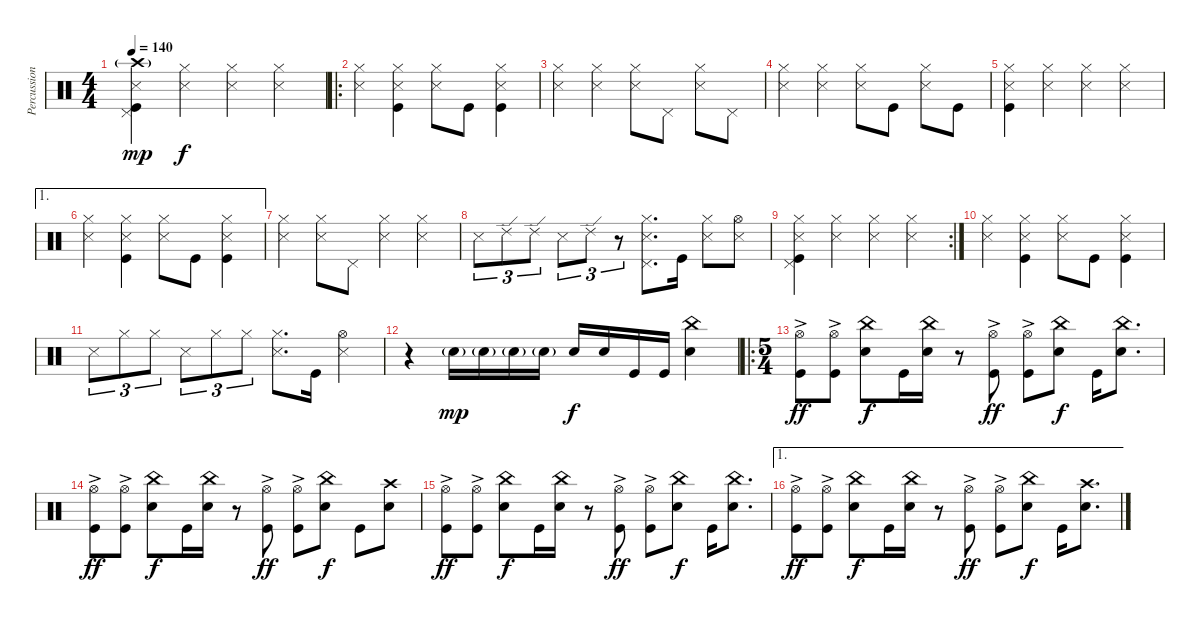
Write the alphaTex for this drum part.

\track ("Percussion" "Percussion") {instrument percussion}
\staff {score}
\articulation defaults
\ts (4 4)
\tempo 140
\clef neutral
\ks c
("Crash high (hit)"{g} "Snare (side stick) 3" "Kick (hit)" "Pedal Hi-Hat (hit)").4{dy mp} ("Hi-Hat (closed)" "Snare (side stick) 3").4{dy f} ("Hi-Hat (closed)" "Snare (side stick) 3").4 ("Hi-Hat (closed)" "Snare (side stick) 3").4 |
\ro
("Hi-Hat (closed)" "Snare (side stick) 3").4 ("Hi-Hat (closed)" "Snare (side stick) 3" "Kick (hit)").4 ("Hi-Hat (closed)" "Snare (side stick) 3").8 "Kick (hit)".8 ("Hi-Hat (closed)" "Snare (side stick) 3" "Kick (hit)").4 |
("Hi-Hat (closed)" "Snare (side stick) 3").4 ("Hi-Hat (closed)" "Snare (side stick) 3").4 ("Hi-Hat (closed)" "Snare (side stick) 3").8 "Pedal Hi-Hat (hit)".8 ("Hi-Hat (closed)" "Snare (side stick) 3").8 "Pedal Hi-Hat (hit)".8 |
("Hi-Hat (closed)" "Snare (side stick) 3").4 ("Hi-Hat (closed)" "Snare (side stick) 3").4 ("Hi-Hat (closed)" "Snare (side stick) 3").8 "Kick (hit)".8 ("Hi-Hat (closed)" "Snare (side stick) 3").8 "Kick (hit)".8 |
("Hi-Hat (closed)" "Snare (side stick) 3" "Kick (hit)").4 ("Hi-Hat (closed)" "Snare (side stick) 3").4 ("Hi-Hat (closed)" "Snare (side stick) 3").4 ("Hi-Hat (closed)" "Snare (side stick) 3").4 |
\ae 1
("Hi-Hat (closed)" "Snare (side stick) 3").4 ("Hi-Hat (closed)" "Snare (side stick) 3" "Kick (hit)").4 ("Hi-Hat (closed)" "Snare (side stick) 3").8 "Kick (hit)".8 ("Hi-Hat (closed)" "Snare (side stick) 3" "Kick (hit)").4 |
("Hi-Hat (closed)" "Snare (side stick) 3").4 ("Hi-Hat (closed)" "Snare (side stick) 3").8 "Pedal Hi-Hat (hit)".8 ("Hi-Hat (closed)" "Snare (side stick) 3").4 ("Hi-Hat (closed)" "Snare (side stick) 3").4 |
"Snare (side stick) 3".8{tu (3 2)} "Ride (edge) 2".8{tu (3 2)} "Ride (edge) 2".8{tu (3 2)} "Snare (side stick) 3".8{tu (3 2)} "Ride (edge) 2".8{tu (3 2)} r.8{tu (3 2)} ("Hi-Hat (closed)" "Snare (side stick) 3" "Pedal Hi-Hat (hit)").8{d} "Kick (hit)".16 ("Hi-Hat (closed)" "Snare (side stick) 3").8 ("Hi-Hat (open)" "Snare (side stick) 3").8 |
\rc 2
("Hi-Hat (closed)" "Snare (side stick) 3" "Kick (hit)" "Pedal Hi-Hat (hit)").4 ("Hi-Hat (closed)" "Snare (side stick) 3").4 ("Hi-Hat (closed)" "Snare (side stick) 3").4 ("Hi-Hat (closed)" "Snare (side stick) 3").4 |
("Hi-Hat (closed)" "Snare (side stick) 3").4 ("Hi-Hat (closed)" "Snare (side stick) 3" "Kick (hit)").4 ("Hi-Hat (closed)" "Snare (side stick) 3").8 "Kick (hit)".8 ("Hi-Hat (closed)" "Snare (side stick) 3" "Kick (hit)").4 |
"Snare (side stick) 3".8{tu (3 2)} "Hi-Hat (closed)".8{tu (3 2)} "Hi-Hat (closed)".8{tu (3 2)} "Snare (side stick) 3".8{tu (3 2)} "Hi-Hat (closed)".8{tu (3 2)} "Hi-Hat (closed)".8{tu (3 2)} ("Hi-Hat (closed)" "Snare (side stick) 3").8{d} "Kick (hit)".16 ("Hi-Hat (open)" "Snare (side stick) 3").4 |
r.4 "Electric Snare (hit)"{g}.16{dy mp} "Electric Snare (hit)"{g}.16 "Electric Snare (hit)"{g}.16 "Electric Snare (hit)"{g}.16 "Electric Snare (hit)".16{dy f} "Electric Snare (hit)".16 "Kick (hit)".16 "Kick (hit)".16 ("China (hit)" "Electric Snare (hit)").4 |
\ro
\ts (5 4)
("Hi-Hat (open)"{ac} "Kick (hit)").8{dy ff} ("Hi-Hat (open)"{ac} "Kick (hit)").8 ("China (hit)" "Electric Snare (hit)").8{dy f} "Kick (hit)".16 ("China (hit)" "Electric Snare (hit)").16 r.8 ("Hi-Hat (open)"{ac} "Kick (hit)").8{dy ff} ("Hi-Hat (open)"{ac} "Kick (hit)").8 ("China (hit)" "Electric Snare (hit)").8{dy f} "Kick (hit)".16 ("China (hit)" "Electric Snare (hit)").8{d} |
("Hi-Hat (open)"{ac} "Kick (hit)").8{dy ff} ("Hi-Hat (open)"{ac} "Kick (hit)").8 ("China (hit)" "Electric Snare (hit)").8{dy f} "Kick (hit)".16 ("China (hit)" "Electric Snare (hit)").16 r.8 ("Hi-Hat (open)"{ac} "Kick (hit)").8{dy ff} ("Hi-Hat (open)"{ac} "Kick (hit)").8 ("China (hit)" "Electric Snare (hit)").8{dy f} "Kick (hit)".8 ("Crash high (hit)" "Electric Snare (hit)").8 |
("Hi-Hat (open)"{ac} "Kick (hit)").8{dy ff} ("Hi-Hat (open)"{ac} "Kick (hit)").8 ("China (hit)" "Electric Snare (hit)").8{dy f} "Kick (hit)".16 ("China (hit)" "Electric Snare (hit)").16 r.8 ("Hi-Hat (open)"{ac} "Kick (hit)").8{dy ff} ("Hi-Hat (open)"{ac} "Kick (hit)").8 ("China (hit)" "Electric Snare (hit)").8{dy f} "Kick (hit)".16 ("China (hit)" "Electric Snare (hit)").8{d} |
\ae 1
("Hi-Hat (open)"{ac} "Kick (hit)").8{dy ff} ("Hi-Hat (open)"{ac} "Kick (hit)").8 ("China (hit)" "Electric Snare (hit)").8{dy f} "Kick (hit)".16 ("China (hit)" "Electric Snare (hit)").16 r.8 ("Hi-Hat (open)"{ac} "Kick (hit)").8{dy ff} ("Hi-Hat (open)"{ac} "Kick (hit)").8 ("China (hit)" "Electric Snare (hit)").8{dy f} "Kick (hit)".16 ("Crash high (hit)" "Electric Snare (hit)").8{d}
